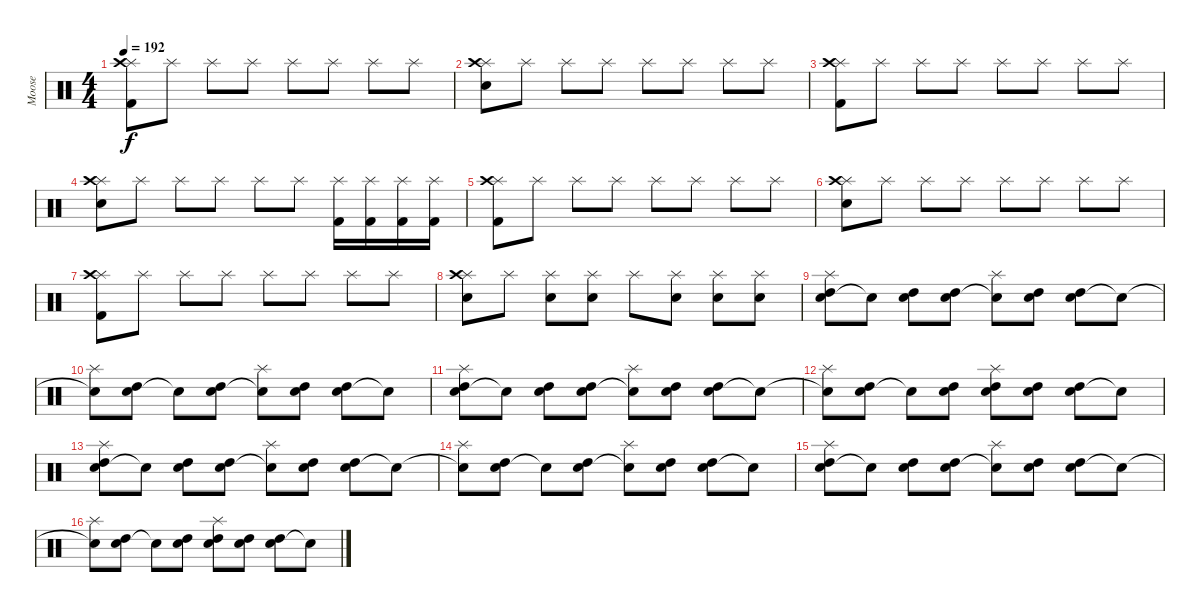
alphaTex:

\track ("Moose" "Moose") {instrument percussion}
\staff {score}
\articulation defaults
\ts (4 4)
\tempo 192
\clef neutral
\ks c
("Splash (hit)" "Crash high (hit)" "Kick (hit) 2").8{dy f} "Splash (hit)".8 "Splash (hit)".8 "Splash (hit)".8 "Splash (hit)".8 "Splash (hit)".8 "Splash (hit)".8 "Splash (hit)".8 |
("Splash (hit)" "Crash high (hit)" "Electric Snare (hit)").8 "Splash (hit)".8 "Splash (hit)".8 "Splash (hit)".8 "Splash (hit)".8 "Splash (hit)".8 "Splash (hit)".8 "Splash (hit)".8 |
("Splash (hit)" "Crash high (hit)" "Kick (hit) 2").8 "Splash (hit)".8 "Splash (hit)".8 "Splash (hit)".8 "Splash (hit)".8 "Splash (hit)".8 "Splash (hit)".8 "Splash (hit)".8 |
("Splash (hit)" "Crash high (hit)" "Electric Snare (hit)").8 "Splash (hit)".8 "Splash (hit)".8 "Splash (hit)".8 "Splash (hit)".8 "Splash (hit)".8 ("Splash (hit)" "Kick (hit) 2").16 ("Splash (hit)" "Kick (hit) 2").16 ("Splash (hit)" "Kick (hit) 2").16 ("Splash (hit)" "Kick (hit) 2").16 |
("Splash (hit)" "Crash high (hit)" "Kick (hit) 2").8 "Splash (hit)".8 "Splash (hit)".8 "Splash (hit)".8 "Splash (hit)".8 "Splash (hit)".8 "Splash (hit)".8 "Splash (hit)".8 |
("Splash (hit)" "Crash high (hit)" "Electric Snare (hit)").8 "Splash (hit)".8 "Splash (hit)".8 "Splash (hit)".8 "Splash (hit)".8 "Splash (hit)".8 "Splash (hit)".8 "Splash (hit)".8 |
("Splash (hit)" "Crash high (hit)" "Kick (hit) 2").8 "Splash (hit)".8 "Splash (hit)".8 "Splash (hit)".8 "Splash (hit)".8 "Splash (hit)".8 "Splash (hit)".8 "Splash (hit)".8 |
("Splash (hit)" "Crash high (hit)" "Electric Snare (hit)").8 "Splash (hit)".8 ("Splash (hit)" "Electric Snare (hit)").8 ("Splash (hit)" "Electric Snare (hit)").8 "Splash (hit)".8 ("Splash (hit)" "Electric Snare (hit)").8 ("Splash (hit)" "Electric Snare (hit)").8 ("Splash (hit)" "Snare (hit) 2").8 |
("Electric Snare (hit)" "High Tom (hit)" "Splash (hit)").8 "Snare (hit)"{t}.8 ("Electric Snare (hit)" "High Tom (hit)").8 ("Electric Snare (hit)" "High Tom (hit)").8 ("Snare (hit)"{t} "Splash (hit)").8 ("Electric Snare (hit)" "High Tom (hit)").8 ("Electric Snare (hit)" "High Tom (hit)").8 "Snare (hit)"{t}.8 |
("Electric Snare (hit)"{t} "Splash (hit)").8 ("Electric Snare (hit)" "High Tom (hit)").8 "Snare (hit)"{t}.8 ("Electric Snare (hit)" "High Tom (hit)").8 ("Snare (hit)"{t} "Splash (hit)").8 ("Electric Snare (hit)" "High Tom (hit)").8 ("Electric Snare (hit)" "High Tom (hit)").8 "Snare (hit)"{t}.8 |
("Electric Snare (hit)" "High Tom (hit)" "Splash (hit)").8 "Snare (hit)"{t}.8 ("Electric Snare (hit)" "High Tom (hit)").8 ("Electric Snare (hit)" "High Tom (hit)").8 ("Snare (hit)"{t} "Splash (hit)").8 ("Electric Snare (hit)" "High Tom (hit)").8 ("Electric Snare (hit)" "High Tom (hit)").8 "Snare (hit)"{t}.8 |
("Electric Snare (hit)"{t} "Splash (hit)").8 ("Electric Snare (hit)" "High Tom (hit)").8 "Snare (hit)"{t}.8 ("Electric Snare (hit)" "High Tom (hit)").8 ("Electric Snare (hit)" "High Tom (hit)" "Splash (hit)").8 ("Electric Snare (hit)" "High Tom (hit)").8 ("Electric Snare (hit)" "High Tom (hit)").8 "Snare (hit)"{t}.8 |
("Electric Snare (hit)" "High Tom (hit)" "Splash (hit)").8 "Snare (hit)"{t}.8 ("Electric Snare (hit)" "High Tom (hit)").8 ("Electric Snare (hit)" "High Tom (hit)").8 ("Snare (hit)"{t} "Splash (hit)").8 ("Electric Snare (hit)" "High Tom (hit)").8 ("Electric Snare (hit)" "High Tom (hit)").8 "Snare (hit)"{t}.8 |
("Electric Snare (hit)"{t} "Splash (hit)").8 ("Electric Snare (hit)" "High Tom (hit)").8 "Snare (hit)"{t}.8 ("Electric Snare (hit)" "High Tom (hit)").8 ("Snare (hit)"{t} "Splash (hit)").8 ("Electric Snare (hit)" "High Tom (hit)").8 ("Electric Snare (hit)" "High Tom (hit)").8 "Snare (hit)"{t}.8 |
("Electric Snare (hit)" "High Tom (hit)" "Splash (hit)").8 "Snare (hit)"{t}.8 ("Electric Snare (hit)" "High Tom (hit)").8 ("Electric Snare (hit)" "High Tom (hit)").8 ("Snare (hit)"{t} "Splash (hit)").8 ("Electric Snare (hit)" "High Tom (hit)").8 ("Electric Snare (hit)" "High Tom (hit)").8 "Snare (hit)"{t}.8 |
("Electric Snare (hit)"{t} "Splash (hit)").8 ("Electric Snare (hit)" "High Tom (hit)").8 "Snare (hit)"{t}.8 ("Electric Snare (hit)" "High Tom (hit)").8 ("Electric Snare (hit)" "High Tom (hit)" "Splash (hit)").8 ("Electric Snare (hit)" "High Tom (hit)").8 ("Electric Snare (hit)" "High Tom (hit)").8 "Snare (hit)"{t}.8
